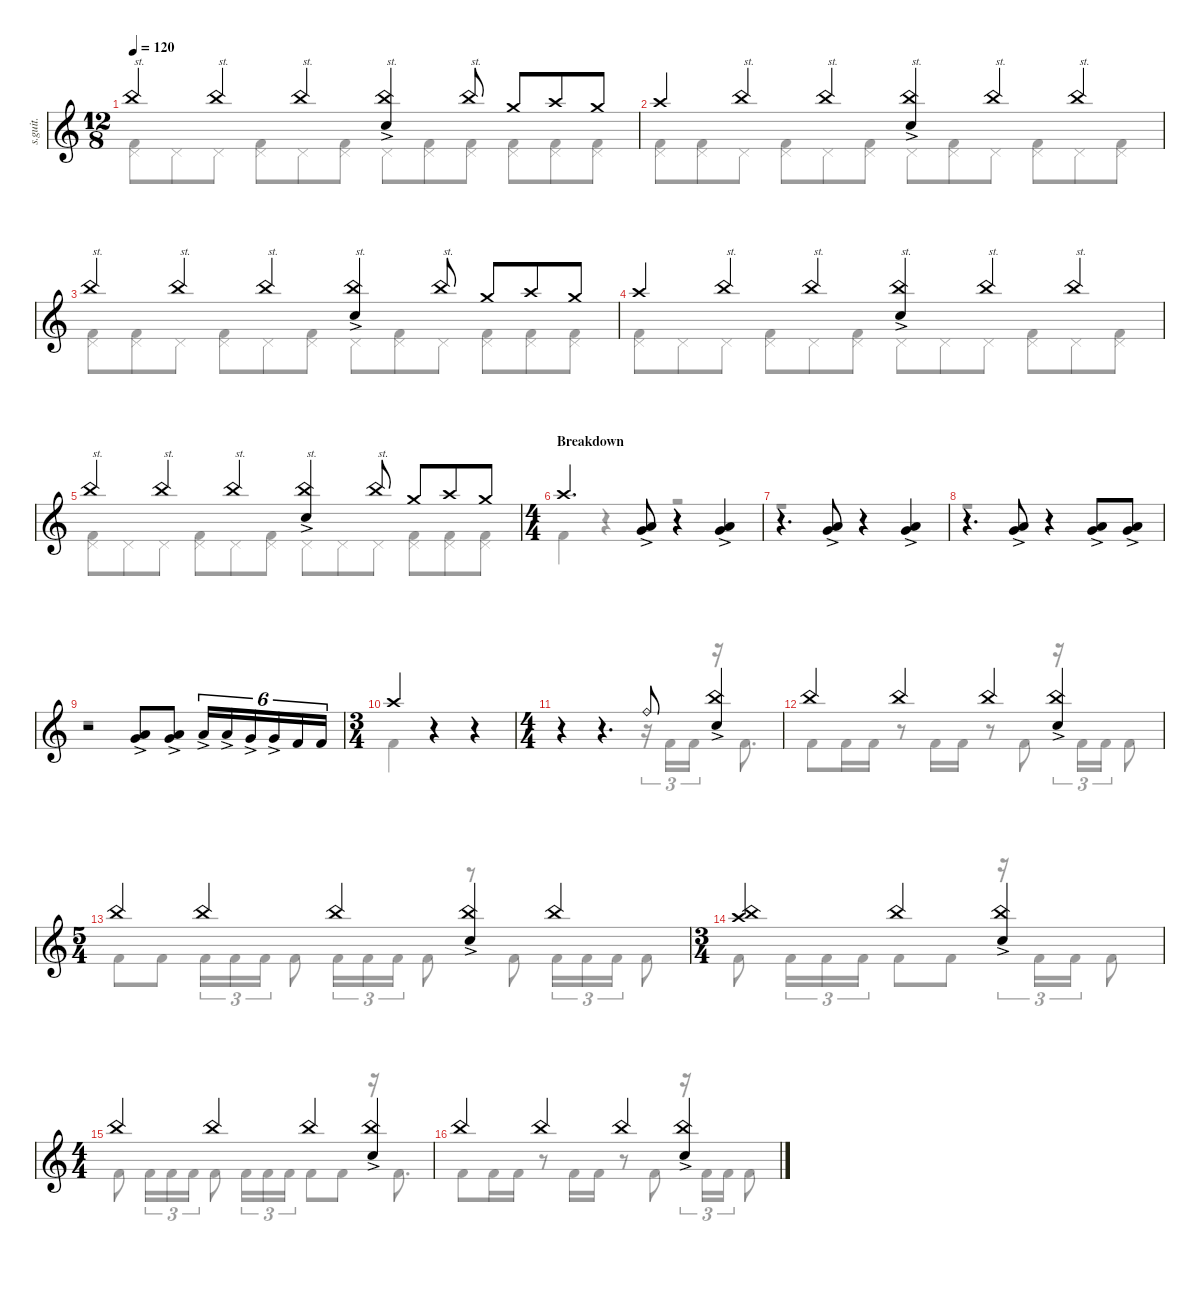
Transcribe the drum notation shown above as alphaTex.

\defaultSystemsLayout 4
\hideDynamics
\bracketExtendMode nobrackets
\track ("Percussion" "s.guit.") {instrument percussion}
\staff {score}
\articulation defaults
\voice
\ts (12 8)
\tempo 120
\clef g2
\ks c "China (hit)".4{txt "st." lyrics (0 "") lyrics (1 "") lyrics (2 "") lyrics (3 "") lyrics (4 "") dy f} "China (hit)".4{txt "st." lyrics (0 "") lyrics (1 "") lyrics (2 "") lyrics (3 "") lyrics (4 "")} "China (hit)".4{txt "st." lyrics (0 "") lyrics (1 "") lyrics (2 "") lyrics (3 "") lyrics (4 "")}
("Snare (hit) 2"{ac} "China (hit)").4{txt "st." lyrics (0 "") lyrics (1 "") lyrics (2 "") lyrics (3 "") lyrics (4 "")} "China (hit)".8{txt "st." lyrics (0 "") lyrics (1 "") lyrics (2 "") lyrics (3 "") lyrics (4 "")} "Crash medium (hit)".8{lyrics (0 "") lyrics (1 "") lyrics (2 "") lyrics (3 "") lyrics (4 "")} "Crash high (hit)".8{lyrics (0 "") lyrics (1 "") lyrics (2 "") lyrics (3 "") lyrics (4 "")} "Crash medium (hit)".8{lyrics (0 "") lyrics (1 "") lyrics (2 "") lyrics (3 "") lyrics (4 "")} |
"Crash high (hit)".4{lyrics (0 "") lyrics (1 "") lyrics (2 "") lyrics (3 "") lyrics (4 "")} "China (hit)".4{txt "st." lyrics (0 "") lyrics (1 "") lyrics (2 "") lyrics (3 "") lyrics (4 "")} "China (hit)".4{txt "st." lyrics (0 "") lyrics (1 "") lyrics (2 "") lyrics (3 "") lyrics (4 "")} ("Snare (hit) 2"{ac} "China (hit)").4{txt "st." lyrics (0 "") lyrics (1 "") lyrics (2 "") lyrics (3 "") lyrics (4 "")} "China (hit)".4{txt "st." lyrics (0 "") lyrics (1 "") lyrics (2 "") lyrics (3 "") lyrics (4 "")} "China (hit)".4{txt "st." lyrics (0 "") lyrics (1 "") lyrics (2 "") lyrics (3 "") lyrics (4 "")} |
"China (hit)".4{txt "st." lyrics (0 "") lyrics (1 "") lyrics (2 "") lyrics (3 "") lyrics (4 "")} "China (hit)".4{txt "st." lyrics (0 "") lyrics (1 "") lyrics (2 "") lyrics (3 "") lyrics (4 "")} "China (hit)".4{txt "st." lyrics (0 "") lyrics (1 "") lyrics (2 "") lyrics (3 "") lyrics (4 "")} ("Snare (hit) 2"{ac} "China (hit)").4{txt "st." lyrics (0 "") lyrics (1 "") lyrics (2 "") lyrics (3 "") lyrics (4 "")} "China (hit)".8{txt "st." lyrics (0 "") lyrics (1 "") lyrics (2 "") lyrics (3 "") lyrics (4 "")} "Crash medium (hit)".8{lyrics (0 "") lyrics (1 "") lyrics (2 "") lyrics (3 "") lyrics (4 "")} "Crash high (hit)".8{lyrics (0 "") lyrics (1 "") lyrics (2 "") lyrics (3 "") lyrics (4 "")} "Crash medium (hit)".8{lyrics (0 "") lyrics (1 "") lyrics (2 "") lyrics (3 "") lyrics (4 "")} |
"Crash high (hit)".4{lyrics (0 "") lyrics (1 "") lyrics (2 "") lyrics (3 "") lyrics (4 "")} "China (hit)".4{txt "st." lyrics (0 "") lyrics (1 "") lyrics (2 "") lyrics (3 "") lyrics (4 "")} "China (hit)".4{txt "st." lyrics (0 "") lyrics (1 "") lyrics (2 "") lyrics (3 "") lyrics (4 "")} ("Snare (hit) 2"{ac} "China (hit)").4{txt "st." lyrics (0 "") lyrics (1 "") lyrics (2 "") lyrics (3 "") lyrics (4 "")} "China (hit)".4{txt "st." lyrics (0 "") lyrics (1 "") lyrics (2 "") lyrics (3 "") lyrics (4 "")} "China (hit)".4{txt "st." lyrics (0 "") lyrics (1 "") lyrics (2 "") lyrics (3 "") lyrics (4 "")} |
"China (hit)".4{txt "st." lyrics (0 "") lyrics (1 "") lyrics (2 "") lyrics (3 "") lyrics (4 "")} "China (hit)".4{txt "st." lyrics (0 "") lyrics (1 "") lyrics (2 "") lyrics (3 "") lyrics (4 "")} "China (hit)".4{txt "st." lyrics (0 "") lyrics (1 "") lyrics (2 "") lyrics (3 "") lyrics (4 "")} ("Snare (hit) 2"{ac} "China (hit)").4{txt "st." lyrics (0 "") lyrics (1 "") lyrics (2 "") lyrics (3 "") lyrics (4 "")} "China (hit)".8{txt "st." lyrics (0 "") lyrics (1 "") lyrics (2 "") lyrics (3 "") lyrics (4 "")} "Crash medium (hit)".8{lyrics (0 "") lyrics (1 "") lyrics (2 "") lyrics (3 "") lyrics (4 "")} "Crash high (hit)".8{lyrics (0 "") lyrics (1 "") lyrics (2 "") lyrics (3 "") lyrics (4 "")} "Crash medium (hit)".8{lyrics (0 "") lyrics (1 "") lyrics (2 "") lyrics (3 "") lyrics (4 "")} |
\ts (4 4)
\beaming (8 2 2 2 2)
\section ("" "Breakdown")
"Crash high (hit)".4{d lyrics (0 "") lyrics (1 "") lyrics (2 "") lyrics (3 "") lyrics (4 "")} ("Very Low Tom (hit)"{ac} "Low Tom (hit)"{ac}).8{lyrics (0 "") lyrics (1 "") lyrics (2 "") lyrics (3 "") lyrics (4 "") dy mf} r.4 ("Very Low Tom (hit)"{ac} "Low Tom (hit)"{ac}).4{lyrics (0 "") lyrics (1 "") lyrics (2 "") lyrics (3 "") lyrics (4 "")} |
r.4{d} ("Very Low Tom (hit)"{ac} "Low Tom (hit)"{ac}).8{lyrics (0 "") lyrics (1 "") lyrics (2 "") lyrics (3 "") lyrics (4 "")} r.4 ("Very Low Tom (hit)"{ac} "Low Tom (hit)"{ac}).4{lyrics (0 "") lyrics (1 "") lyrics (2 "") lyrics (3 "") lyrics (4 "")} |
r.4{d} ("Very Low Tom (hit)"{ac} "Low Tom (hit)"{ac}).8{lyrics (0 "") lyrics (1 "") lyrics (2 "") lyrics (3 "") lyrics (4 "")} r.4 ("Very Low Tom (hit)"{ac} "Low Tom (hit)"{ac}).8{lyrics (0 "") lyrics (1 "") lyrics (2 "") lyrics (3 "") lyrics (4 "")} ("Very Low Tom (hit)"{ac} "Low Tom (hit)"{ac}).8{lyrics (0 "") lyrics (1 "") lyrics (2 "") lyrics (3 "") lyrics (4 "")} |
r.2 ("Low Tom (hit)"{ac} "Very Low Tom (hit)"{ac}).8{lyrics (0 "") lyrics (1 "") lyrics (2 "") lyrics (3 "") lyrics (4 "")} ("Very Low Tom (hit)"{ac} "Low Tom (hit)"{ac}).8{lyrics (0 "") lyrics (1 "") lyrics (2 "") lyrics (3 "") lyrics (4 "")} "Low Tom (hit)"{ac}.16{tu (6 4) lyrics (0 "") lyrics (1 "") lyrics (2 "") lyrics (3 "") lyrics (4 "")} "Low Tom (hit)"{ac}.16{tu (6 4) lyrics (0 "") lyrics (1 "") lyrics (2 "") lyrics (3 "") lyrics (4 "")} "Very Low Tom (hit)"{ac}.16{tu (6 4) lyrics (0 "") lyrics (1 "") lyrics (2 "") lyrics (3 "") lyrics (4 "")} "Very Low Tom (hit)"{ac}.16{tu (6 4) lyrics (0 "") lyrics (1 "") lyrics (2 "") lyrics (3 "") lyrics (4 "")} "Kick (hit) 2".16{tu (6 4) lyrics (0 "") lyrics (1 "") lyrics (2 "") lyrics (3 "") lyrics (4 "") dy f} "Kick (hit) 2".16{tu (6 4) lyrics (0 "") lyrics (1 "") lyrics (2 "") lyrics (3 "") lyrics (4 "")} |
\ts (3 4)
\beaming (8 2 2 2 2)
"Crash high (hit)".4{lyrics (0 "") lyrics (1 "") lyrics (2 "") lyrics (3 "") lyrics (4 "")} r.4 r.4 |
\ts (4 4)
\beaming (8 2 2 2 2)
r.4 r.4{d} "Ride (bell)".8{lyrics (0 "") lyrics (1 "") lyrics (2 "") lyrics (3 "") lyrics (4 "")} ("Snare (hit) 2"{ac} "China (hit)").4{lyrics (0 "") lyrics (1 "") lyrics (2 "") lyrics (3 "") lyrics (4 "")} |
"China (hit)".4{lyrics (0 "") lyrics (1 "") lyrics (2 "") lyrics (3 "") lyrics (4 "")} "China (hit)".4{lyrics (0 "") lyrics (1 "") lyrics (2 "") lyrics (3 "") lyrics (4 "")} "China (hit)".4{lyrics (0 "") lyrics (1 "") lyrics (2 "") lyrics (3 "") lyrics (4 "")} ("China (hit)" "Snare (hit) 2"{ac}).4{lyrics (0 "") lyrics (1 "") lyrics (2 "") lyrics (3 "") lyrics (4 "")} |
\ts (5 4)
\beaming (8 2 2 2 2)
"China (hit)".4{lyrics (0 "") lyrics (1 "") lyrics (2 "") lyrics (3 "") lyrics (4 "")} "China (hit)".4{lyrics (0 "") lyrics (1 "") lyrics (2 "") lyrics (3 "") lyrics (4 "")} "China (hit)".4{lyrics (0 "") lyrics (1 "") lyrics (2 "") lyrics (3 "") lyrics (4 "")} ("China (hit)" "Snare (hit) 2"{ac}).4{lyrics (0 "") lyrics (1 "") lyrics (2 "") lyrics (3 "") lyrics (4 "")} "China (hit)".4{lyrics (0 "") lyrics (1 "") lyrics (2 "") lyrics (3 "") lyrics (4 "")} |
\ts (3 4)
\beaming (8 2 2 2 2)
("China (hit)" "Crash high (hit)").4{lyrics (0 "") lyrics (1 "") lyrics (2 "") lyrics (3 "") lyrics (4 "")} "China (hit)".4{lyrics (0 "") lyrics (1 "") lyrics (2 "") lyrics (3 "") lyrics (4 "")} ("China (hit)" "Snare (hit) 2"{ac}).4{lyrics (0 "") lyrics (1 "") lyrics (2 "") lyrics (3 "") lyrics (4 "")} |
\ts (4 4)
\beaming (8 2 2 2 2)
"China (hit)".4{lyrics (0 "") lyrics (1 "") lyrics (2 "") lyrics (3 "") lyrics (4 "")} "China (hit)".4{lyrics (0 "") lyrics (1 "") lyrics (2 "") lyrics (3 "") lyrics (4 "")} "China (hit)".4{lyrics (0 "") lyrics (1 "") lyrics (2 "") lyrics (3 "") lyrics (4 "")} ("China (hit)" "Snare (hit) 2"{ac}).4{lyrics (0 "") lyrics (1 "") lyrics (2 "") lyrics (3 "") lyrics (4 "")} |
"China (hit)".4{lyrics (0 "") lyrics (1 "") lyrics (2 "") lyrics (3 "") lyrics (4 "")} "China (hit)".4{lyrics (0 "") lyrics (1 "") lyrics (2 "") lyrics (3 "") lyrics (4 "")} "China (hit)".4{lyrics (0 "") lyrics (1 "") lyrics (2 "") lyrics (3 "") lyrics (4 "")} ("China (hit)" "Snare (hit) 2"{ac}).4{lyrics (0 "") lyrics (1 "") lyrics (2 "") lyrics (3 "") lyrics (4 "")}
\voice
\clef g2
\ottava regular
\simile none
\ks c
("Kick (hit) 2" "Pedal Hi-Hat (hit)").8{lyrics (0 "") lyrics (1 "") lyrics (2 "") lyrics (3 "") lyrics (4 "") dy f} "Pedal Hi-Hat (hit)".8{lyrics (0 "") lyrics (1 "") lyrics (2 "") lyrics (3 "") lyrics (4 "")} "Pedal Hi-Hat (hit)".8{lyrics (0 "") lyrics (1 "") lyrics (2 "") lyrics (3 "") lyrics (4 "")} ("Pedal Hi-Hat (hit)" "Kick (hit) 2").8{lyrics (0 "") lyrics (1 "") lyrics (2 "") lyrics (3 "") lyrics (4 "")} "Pedal Hi-Hat (hit)".8{lyrics (0 "") lyrics (1 "") lyrics (2 "") lyrics (3 "") lyrics (4 "")} ("Pedal Hi-Hat (hit)" "Kick (hit) 2").8{lyrics (0 "") lyrics (1 "") lyrics (2 "") lyrics (3 "") lyrics (4 "")} "Pedal Hi-Hat (hit)".8{lyrics (0 "") lyrics (1 "") lyrics (2 "") lyrics (3 "") lyrics (4 "")} ("Pedal Hi-Hat (hit)" "Kick (hit) 2").8{lyrics (0 "") lyrics (1 "") lyrics (2 "") lyrics (3 "") lyrics (4 "")} ("Pedal Hi-Hat (hit)" "Kick (hit) 2").8{lyrics (0 "") lyrics (1 "") lyrics (2 "") lyrics (3 "") lyrics (4 "")} ("Pedal Hi-Hat (hit)" "Kick (hit) 2").8{lyrics (0 "") lyrics (1 "") lyrics (2 "") lyrics (3 "") lyrics (4 "")} ("Pedal Hi-Hat (hit)" "Kick (hit) 2").8{lyrics (0 "") lyrics (1 "") lyrics (2 "") lyrics (3 "") lyrics (4 "")} ("Pedal Hi-Hat (hit)" "Kick (hit) 2").8{lyrics (0 "") lyrics (1 "") lyrics (2 "") lyrics (3 "") lyrics (4 "")} |
("Kick (hit) 2" "Pedal Hi-Hat (hit)").8{lyrics (0 "") lyrics (1 "") lyrics (2 "") lyrics (3 "") lyrics (4 "")} ("Pedal Hi-Hat (hit)" "Kick (hit) 2").8{lyrics (0 "") lyrics (1 "") lyrics (2 "") lyrics (3 "") lyrics (4 "")} "Pedal Hi-Hat (hit)".8{lyrics (0 "") lyrics (1 "") lyrics (2 "") lyrics (3 "") lyrics (4 "")} ("Pedal Hi-Hat (hit)" "Kick (hit) 2").8{lyrics (0 "") lyrics (1 "") lyrics (2 "") lyrics (3 "") lyrics (4 "")} "Pedal Hi-Hat (hit)".8{lyrics (0 "") lyrics (1 "") lyrics (2 "") lyrics (3 "") lyrics (4 "")} ("Pedal Hi-Hat (hit)" "Kick (hit) 2").8{lyrics (0 "") lyrics (1 "") lyrics (2 "") lyrics (3 "") lyrics (4 "")} "Pedal Hi-Hat (hit)".8{lyrics (0 "") lyrics (1 "") lyrics (2 "") lyrics (3 "") lyrics (4 "")} ("Pedal Hi-Hat (hit)" "Kick (hit) 2").8{lyrics (0 "") lyrics (1 "") lyrics (2 "") lyrics (3 "") lyrics (4 "")} "Pedal Hi-Hat (hit)".8{lyrics (0 "") lyrics (1 "") lyrics (2 "") lyrics (3 "") lyrics (4 "")} ("Pedal Hi-Hat (hit)" "Kick (hit) 2").8{lyrics (0 "") lyrics (1 "") lyrics (2 "") lyrics (3 "") lyrics (4 "")} "Pedal Hi-Hat (hit)".8{lyrics (0 "") lyrics (1 "") lyrics (2 "") lyrics (3 "") lyrics (4 "")} ("Pedal Hi-Hat (hit)" "Kick (hit) 2").8{lyrics (0 "") lyrics (1 "") lyrics (2 "") lyrics (3 "") lyrics (4 "")} |
("Kick (hit) 2" "Pedal Hi-Hat (hit)").8{lyrics (0 "") lyrics (1 "") lyrics (2 "") lyrics (3 "") lyrics (4 "")} ("Pedal Hi-Hat (hit)" "Kick (hit) 2").8{lyrics (0 "") lyrics (1 "") lyrics (2 "") lyrics (3 "") lyrics (4 "")} "Pedal Hi-Hat (hit)".8{lyrics (0 "") lyrics (1 "") lyrics (2 "") lyrics (3 "") lyrics (4 "")} ("Pedal Hi-Hat (hit)" "Kick (hit) 2").8{lyrics (0 "") lyrics (1 "") lyrics (2 "") lyrics (3 "") lyrics (4 "")} "Pedal Hi-Hat (hit)".8{lyrics (0 "") lyrics (1 "") lyrics (2 "") lyrics (3 "") lyrics (4 "")} ("Pedal Hi-Hat (hit)" "Kick (hit) 2").8{lyrics (0 "") lyrics (1 "") lyrics (2 "") lyrics (3 "") lyrics (4 "")} "Pedal Hi-Hat (hit)".8{lyrics (0 "") lyrics (1 "") lyrics (2 "") lyrics (3 "") lyrics (4 "")} ("Pedal Hi-Hat (hit)" "Kick (hit) 2").8{lyrics (0 "") lyrics (1 "") lyrics (2 "") lyrics (3 "") lyrics (4 "")} "Pedal Hi-Hat (hit)".8{lyrics (0 "") lyrics (1 "") lyrics (2 "") lyrics (3 "") lyrics (4 "")} ("Pedal Hi-Hat (hit)" "Kick (hit) 2").8{lyrics (0 "") lyrics (1 "") lyrics (2 "") lyrics (3 "") lyrics (4 "")} ("Pedal Hi-Hat (hit)" "Kick (hit) 2").8{lyrics (0 "") lyrics (1 "") lyrics (2 "") lyrics (3 "") lyrics (4 "")} ("Pedal Hi-Hat (hit)" "Kick (hit) 2").8{lyrics (0 "") lyrics (1 "") lyrics (2 "") lyrics (3 "") lyrics (4 "")} |
("Kick (hit) 2" "Pedal Hi-Hat (hit)").8{lyrics (0 "") lyrics (1 "") lyrics (2 "") lyrics (3 "") lyrics (4 "")} "Pedal Hi-Hat (hit)".8{lyrics (0 "") lyrics (1 "") lyrics (2 "") lyrics (3 "") lyrics (4 "")} "Pedal Hi-Hat (hit)".8{lyrics (0 "") lyrics (1 "") lyrics (2 "") lyrics (3 "") lyrics (4 "")} ("Pedal Hi-Hat (hit)" "Kick (hit) 2").8{lyrics (0 "") lyrics (1 "") lyrics (2 "") lyrics (3 "") lyrics (4 "")} "Pedal Hi-Hat (hit)".8{lyrics (0 "") lyrics (1 "") lyrics (2 "") lyrics (3 "") lyrics (4 "")} ("Pedal Hi-Hat (hit)" "Kick (hit) 2").8{lyrics (0 "") lyrics (1 "") lyrics (2 "") lyrics (3 "") lyrics (4 "")} "Pedal Hi-Hat (hit)".8{lyrics (0 "") lyrics (1 "") lyrics (2 "") lyrics (3 "") lyrics (4 "")} "Pedal Hi-Hat (hit)".8{lyrics (0 "") lyrics (1 "") lyrics (2 "") lyrics (3 "") lyrics (4 "")} "Pedal Hi-Hat (hit)".8{lyrics (0 "") lyrics (1 "") lyrics (2 "") lyrics (3 "") lyrics (4 "")} ("Pedal Hi-Hat (hit)" "Kick (hit) 2").8{lyrics (0 "") lyrics (1 "") lyrics (2 "") lyrics (3 "") lyrics (4 "")} "Pedal Hi-Hat (hit)".8{lyrics (0 "") lyrics (1 "") lyrics (2 "") lyrics (3 "") lyrics (4 "")} ("Pedal Hi-Hat (hit)" "Kick (hit) 2").8{lyrics (0 "") lyrics (1 "") lyrics (2 "") lyrics (3 "") lyrics (4 "")} |
("Kick (hit) 2" "Pedal Hi-Hat (hit)").8{lyrics (0 "") lyrics (1 "") lyrics (2 "") lyrics (3 "") lyrics (4 "")} "Pedal Hi-Hat (hit)".8{lyrics (0 "") lyrics (1 "") lyrics (2 "") lyrics (3 "") lyrics (4 "")} "Pedal Hi-Hat (hit)".8{lyrics (0 "") lyrics (1 "") lyrics (2 "") lyrics (3 "") lyrics (4 "")} ("Pedal Hi-Hat (hit)" "Kick (hit) 2").8{lyrics (0 "") lyrics (1 "") lyrics (2 "") lyrics (3 "") lyrics (4 "")} "Pedal Hi-Hat (hit)".8{lyrics (0 "") lyrics (1 "") lyrics (2 "") lyrics (3 "") lyrics (4 "")} ("Pedal Hi-Hat (hit)" "Kick (hit) 2").8{lyrics (0 "") lyrics (1 "") lyrics (2 "") lyrics (3 "") lyrics (4 "")} "Pedal Hi-Hat (hit)".8{lyrics (0 "") lyrics (1 "") lyrics (2 "") lyrics (3 "") lyrics (4 "")} "Pedal Hi-Hat (hit)".8{lyrics (0 "") lyrics (1 "") lyrics (2 "") lyrics (3 "") lyrics (4 "")} "Pedal Hi-Hat (hit)".8{lyrics (0 "") lyrics (1 "") lyrics (2 "") lyrics (3 "") lyrics (4 "")} ("Pedal Hi-Hat (hit)" "Kick (hit) 2").8{lyrics (0 "") lyrics (1 "") lyrics (2 "") lyrics (3 "") lyrics (4 "")} ("Pedal Hi-Hat (hit)" "Kick (hit) 2").8{lyrics (0 "") lyrics (1 "") lyrics (2 "") lyrics (3 "") lyrics (4 "")} ("Pedal Hi-Hat (hit)" "Kick (hit) 2").8{lyrics (0 "") lyrics (1 "") lyrics (2 "") lyrics (3 "") lyrics (4 "")} |
"Kick (hit) 2".4{lyrics (0 "") lyrics (1 "") lyrics (2 "") lyrics (3 "") lyrics (4 "")} r.4 r.2 |
r.1 |
r.1 |
r.1 |
"Kick (hit) 2".4{lyrics (0 "") lyrics (1 "") lyrics (2 "") lyrics (3 "") lyrics (4 "")} r.4 r.4 |
r.4 r.4{d} r.16{tu (3 2)} "Kick (hit) 2".16{tu (3 2) lyrics (0 "") lyrics (1 "") lyrics (2 "") lyrics (3 "") lyrics (4 "")} "Kick (hit) 2".16{tu (3 2) lyrics (0 "") lyrics (1 "") lyrics (2 "") lyrics (3 "") lyrics (4 "")} r.16 "Kick (hit) 2".8{d lyrics (0 "") lyrics (1 "") lyrics (2 "") lyrics (3 "") lyrics (4 "")} |
"Kick (hit) 2".8{lyrics (0 "") lyrics (1 "") lyrics (2 "") lyrics (3 "") lyrics (4 "")} "Kick (hit) 2".16{lyrics (0 "") lyrics (1 "") lyrics (2 "") lyrics (3 "") lyrics (4 "")} "Kick (hit) 2".16{lyrics (0 "") lyrics (1 "") lyrics (2 "") lyrics (3 "") lyrics (4 "")} r.8 "Kick (hit) 2".16{lyrics (0 "") lyrics (1 "") lyrics (2 "") lyrics (3 "") lyrics (4 "")} "Kick (hit) 2".16{lyrics (0 "") lyrics (1 "") lyrics (2 "") lyrics (3 "") lyrics (4 "")} r.8 "Kick (hit) 2".8{lyrics (0 "") lyrics (1 "") lyrics (2 "") lyrics (3 "") lyrics (4 "")} r.16{tu (3 2)} "Kick (hit) 2".16{tu (3 2) lyrics (0 "") lyrics (1 "") lyrics (2 "") lyrics (3 "") lyrics (4 "")} "Kick (hit) 2".16{tu (3 2) lyrics (0 "") lyrics (1 "") lyrics (2 "") lyrics (3 "") lyrics (4 "")} "Kick (hit) 2".8{lyrics (0 "") lyrics (1 "") lyrics (2 "") lyrics (3 "") lyrics (4 "")} |
"Kick (hit) 2".8{lyrics (0 "") lyrics (1 "") lyrics (2 "") lyrics (3 "") lyrics (4 "")} "Kick (hit) 2".8{lyrics (0 "") lyrics (1 "") lyrics (2 "") lyrics (3 "") lyrics (4 "")} "Kick (hit) 2".16{tu (3 2) lyrics (0 "") lyrics (1 "") lyrics (2 "") lyrics (3 "") lyrics (4 "")} "Kick (hit) 2".16{tu (3 2) lyrics (0 "") lyrics (1 "") lyrics (2 "") lyrics (3 "") lyrics (4 "")} "Kick (hit) 2".16{tu (3 2) lyrics (0 "") lyrics (1 "") lyrics (2 "") lyrics (3 "") lyrics (4 "")} "Kick (hit) 2".8{lyrics (0 "") lyrics (1 "") lyrics (2 "") lyrics (3 "") lyrics (4 "")} "Kick (hit) 2".16{tu (3 2) lyrics (0 "") lyrics (1 "") lyrics (2 "") lyrics (3 "") lyrics (4 "")} "Kick (hit) 2".16{tu (3 2) lyrics (0 "") lyrics (1 "") lyrics (2 "") lyrics (3 "") lyrics (4 "")} "Kick (hit) 2".16{tu (3 2) lyrics (0 "") lyrics (1 "") lyrics (2 "") lyrics (3 "") lyrics (4 "")} "Kick (hit) 2".8{lyrics (0 "") lyrics (1 "") lyrics (2 "") lyrics (3 "") lyrics (4 "")} r.8 "Kick (hit) 2".8{lyrics (0 "") lyrics (1 "") lyrics (2 "") lyrics (3 "") lyrics (4 "")} "Kick (hit) 2".16{tu (3 2) lyrics (0 "") lyrics (1 "") lyrics (2 "") lyrics (3 "") lyrics (4 "")} "Kick (hit) 2".16{tu (3 2) lyrics (0 "") lyrics (1 "") lyrics (2 "") lyrics (3 "") lyrics (4 "")} "Kick (hit) 2".16{tu (3 2) lyrics (0 "") lyrics (1 "") lyrics (2 "") lyrics (3 "") lyrics (4 "")} "Kick (hit) 2".8{lyrics (0 "") lyrics (1 "") lyrics (2 "") lyrics (3 "") lyrics (4 "")} |
"Kick (hit) 2".8{lyrics (0 "") lyrics (1 "") lyrics (2 "") lyrics (3 "") lyrics (4 "")} "Kick (hit) 2".16{tu (3 2) lyrics (0 "") lyrics (1 "") lyrics (2 "") lyrics (3 "") lyrics (4 "")} "Kick (hit) 2".16{tu (3 2) lyrics (0 "") lyrics (1 "") lyrics (2 "") lyrics (3 "") lyrics (4 "")} "Kick (hit) 2".16{tu (3 2) lyrics (0 "") lyrics (1 "") lyrics (2 "") lyrics (3 "") lyrics (4 "")} "Kick (hit) 2".8{lyrics (0 "") lyrics (1 "") lyrics (2 "") lyrics (3 "") lyrics (4 "")} "Kick (hit) 2".8{lyrics (0 "") lyrics (1 "") lyrics (2 "") lyrics (3 "") lyrics (4 "")} r.16{tu (3 2)} "Kick (hit) 2".16{tu (3 2) lyrics (0 "") lyrics (1 "") lyrics (2 "") lyrics (3 "") lyrics (4 "")} "Kick (hit) 2".16{tu (3 2) lyrics (0 "") lyrics (1 "") lyrics (2 "") lyrics (3 "") lyrics (4 "")} "Kick (hit) 2".8{lyrics (0 "") lyrics (1 "") lyrics (2 "") lyrics (3 "") lyrics (4 "")} |
"Kick (hit) 2".8{lyrics (0 "") lyrics (1 "") lyrics (2 "") lyrics (3 "") lyrics (4 "")} "Kick (hit) 2".16{tu (3 2) lyrics (0 "") lyrics (1 "") lyrics (2 "") lyrics (3 "") lyrics (4 "")} "Kick (hit) 2".16{tu (3 2) lyrics (0 "") lyrics (1 "") lyrics (2 "") lyrics (3 "") lyrics (4 "")} "Kick (hit) 2".16{tu (3 2) lyrics (0 "") lyrics (1 "") lyrics (2 "") lyrics (3 "") lyrics (4 "")} "Kick (hit) 2".8{lyrics (0 "") lyrics (1 "") lyrics (2 "") lyrics (3 "") lyrics (4 "")} "Kick (hit) 2".16{tu (3 2) lyrics (0 "") lyrics (1 "") lyrics (2 "") lyrics (3 "") lyrics (4 "")} "Kick (hit) 2".16{tu (3 2) lyrics (0 "") lyrics (1 "") lyrics (2 "") lyrics (3 "") lyrics (4 "")} "Kick (hit) 2".16{tu (3 2) lyrics (0 "") lyrics (1 "") lyrics (2 "") lyrics (3 "") lyrics (4 "")} "Kick (hit) 2".8{lyrics (0 "") lyrics (1 "") lyrics (2 "") lyrics (3 "") lyrics (4 "")} "Kick (hit) 2".8{lyrics (0 "") lyrics (1 "") lyrics (2 "") lyrics (3 "") lyrics (4 "")} r.16 "Kick (hit) 2".8{d lyrics (0 "") lyrics (1 "") lyrics (2 "") lyrics (3 "") lyrics (4 "")} |
"Kick (hit) 2".8{lyrics (0 "") lyrics (1 "") lyrics (2 "") lyrics (3 "") lyrics (4 "")} "Kick (hit) 2".16{lyrics (0 "") lyrics (1 "") lyrics (2 "") lyrics (3 "") lyrics (4 "")} "Kick (hit) 2".16{lyrics (0 "") lyrics (1 "") lyrics (2 "") lyrics (3 "") lyrics (4 "")} r.8 "Kick (hit) 2".16{lyrics (0 "") lyrics (1 "") lyrics (2 "") lyrics (3 "") lyrics (4 "")} "Kick (hit) 2".16{lyrics (0 "") lyrics (1 "") lyrics (2 "") lyrics (3 "") lyrics (4 "")} r.8 "Kick (hit) 2".8{lyrics (0 "") lyrics (1 "") lyrics (2 "") lyrics (3 "") lyrics (4 "")} r.16{tu (3 2)} "Kick (hit) 2".16{tu (3 2) lyrics (0 "") lyrics (1 "") lyrics (2 "") lyrics (3 "") lyrics (4 "")} "Kick (hit) 2".16{tu (3 2) lyrics (0 "") lyrics (1 "") lyrics (2 "") lyrics (3 "") lyrics (4 "")} "Kick (hit) 2".8{lyrics (0 "") lyrics (1 "") lyrics (2 "") lyrics (3 "") lyrics (4 "")}
